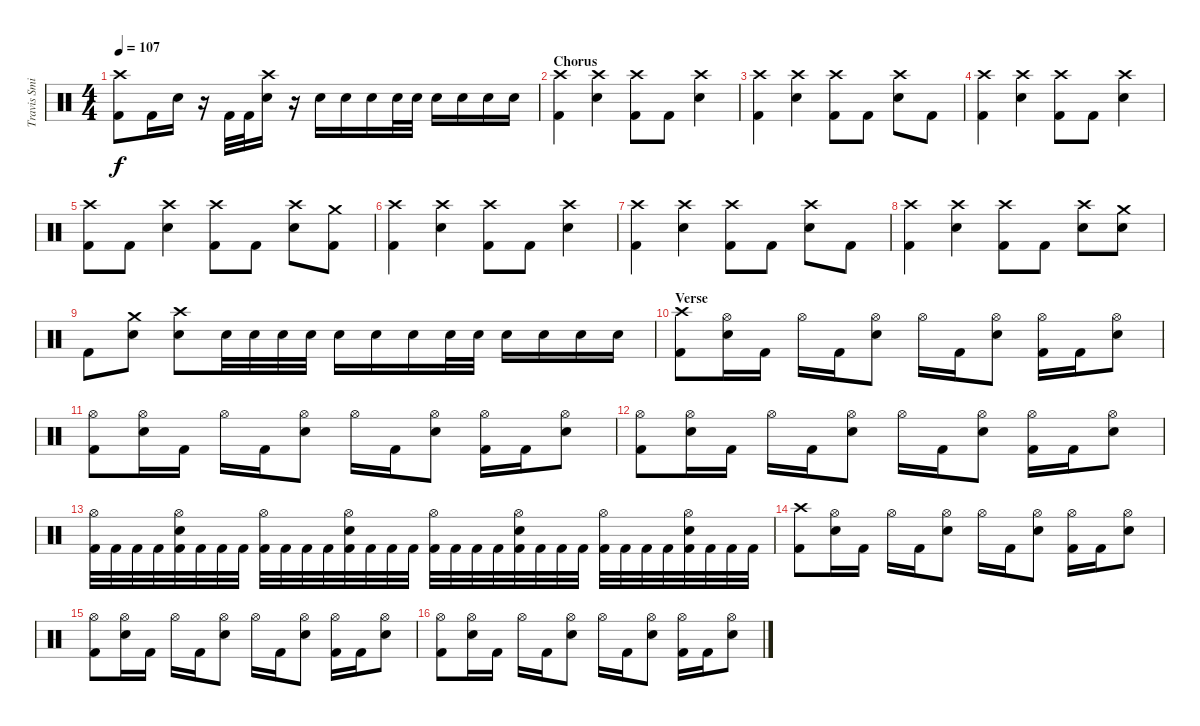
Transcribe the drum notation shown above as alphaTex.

\track ("Travis Smith" "Travis Smi") {instrument percussion}
\staff {score}
\articulation defaults
\ts (4 4)
\tempo 107
\clef neutral
\ks c
("Crash high (hit)" "Kick (hit) 2").8{dy f} "Kick (hit) 2".16 "Electric Snare (hit)".16 r.16 "Kick (hit) 2".32 "Kick (hit) 2".32 ("Crash high (hit)" "Electric Snare (hit)").16 r.16 "Electric Snare (hit)".16 "Electric Snare (hit)".16 "Electric Snare (hit)".16 "Electric Snare (hit)".32 "Electric Snare (hit)".32 "Electric Snare (hit)".16 "Electric Snare (hit)".16 "Electric Snare (hit)".16 "Electric Snare (hit)".16 |
\section ("" "Chorus")
("Crash high (hit)" "Kick (hit) 2").4 ("Crash high (hit)" "Electric Snare (hit)").4 ("Crash high (hit)" "Kick (hit) 2").8 "Kick (hit) 2".8 ("Crash high (hit)" "Electric Snare (hit)").4 |
("Crash high (hit)" "Kick (hit) 2").4 ("Crash high (hit)" "Electric Snare (hit)").4 ("Crash high (hit)" "Kick (hit) 2").8 "Kick (hit) 2".8 ("Crash high (hit)" "Electric Snare (hit)").8 "Kick (hit) 2".8 |
("Crash high (hit)" "Kick (hit) 2").4 ("Crash high (hit)" "Electric Snare (hit)").4 ("Crash high (hit)" "Kick (hit) 2").8 "Kick (hit) 2".8 ("Crash high (hit)" "Electric Snare (hit)").4 |
("Crash high (hit)" "Kick (hit) 2").8 "Kick (hit) 2".8 ("Crash high (hit)" "Electric Snare (hit)").4 ("Crash high (hit)" "Kick (hit) 2").8 "Kick (hit) 2".8 ("Crash high (hit)" "Electric Snare (hit)").8 ("Crash medium (hit)" "Kick (hit) 2").8 |
("Crash high (hit)" "Kick (hit) 2").4 ("Crash high (hit)" "Electric Snare (hit)").4 ("Crash high (hit)" "Kick (hit) 2").8 "Kick (hit) 2".8 ("Crash high (hit)" "Electric Snare (hit)").4 |
("Crash high (hit)" "Kick (hit) 2").4 ("Crash high (hit)" "Electric Snare (hit)").4 ("Crash high (hit)" "Kick (hit) 2").8 "Kick (hit) 2".8 ("Crash high (hit)" "Electric Snare (hit)").8 "Kick (hit) 2".8 |
("Crash high (hit)" "Kick (hit) 2").4 ("Crash high (hit)" "Electric Snare (hit)").4 ("Crash high (hit)" "Kick (hit) 2").8 "Kick (hit) 2".8 ("Crash high (hit)" "Electric Snare (hit)").8 ("Crash medium (hit)" "Electric Snare (hit)").8 |
"Kick (hit) 2".8 ("Crash medium (hit)" "Electric Snare (hit)").8 ("Crash high (hit)" "Electric Snare (hit)").8 "Electric Snare (hit)".32 "Electric Snare (hit)".32 "Electric Snare (hit)".32 "Electric Snare (hit)".32 "Electric Snare (hit)".16 "Electric Snare (hit)".16 "Electric Snare (hit)".16 "Electric Snare (hit)".32 "Electric Snare (hit)".32 "Electric Snare (hit)".16 "Electric Snare (hit)".16 "Electric Snare (hit)".16 "Electric Snare (hit)".16 |
\section ("" "Verse")
("Crash high (hit)" "Kick (hit) 2").8 ("Hi-Hat (open)" "Electric Snare (hit)").16 "Kick (hit) 2".16 "Hi-Hat (open)".16 "Kick (hit) 2".16 ("Hi-Hat (open)" "Electric Snare (hit)").8 "Hi-Hat (open)".16 "Kick (hit) 2".16 ("Hi-Hat (open)" "Electric Snare (hit)").8 ("Hi-Hat (open)" "Kick (hit) 2").16 "Kick (hit) 2".16 ("Hi-Hat (open)" "Electric Snare (hit)").8 |
("Hi-Hat (open)" "Kick (hit) 2").8 ("Hi-Hat (open)" "Electric Snare (hit)").16 "Kick (hit) 2".16 "Hi-Hat (open)".16 "Kick (hit) 2".16 ("Hi-Hat (open)" "Electric Snare (hit)").8 "Hi-Hat (open)".16 "Kick (hit) 2".16 ("Hi-Hat (open)" "Electric Snare (hit)").8 ("Hi-Hat (open)" "Kick (hit) 2").16 "Kick (hit) 2".16 ("Hi-Hat (open)" "Electric Snare (hit)").8 |
("Hi-Hat (open)" "Kick (hit) 2").8 ("Hi-Hat (open)" "Electric Snare (hit)").16 "Kick (hit) 2".16 "Hi-Hat (open)".16 "Kick (hit) 2".16 ("Hi-Hat (open)" "Electric Snare (hit)").8 "Hi-Hat (open)".16 "Kick (hit) 2".16 ("Hi-Hat (open)" "Electric Snare (hit)").8 ("Hi-Hat (open)" "Kick (hit) 2").16 "Kick (hit) 2".16 ("Hi-Hat (open)" "Electric Snare (hit)").8 |
("Hi-Hat (open)" "Kick (hit) 2").32 "Kick (hit) 2".32 "Kick (hit) 2".32 "Kick (hit) 2".32 ("Hi-Hat (open)" "Electric Snare (hit)" "Kick (hit) 2").32 "Kick (hit) 2".32 "Kick (hit) 2".32 "Kick (hit) 2".32 ("Hi-Hat (open)" "Kick (hit) 2").32 "Kick (hit) 2".32 "Kick (hit) 2".32 "Kick (hit) 2".32 ("Hi-Hat (open)" "Electric Snare (hit)" "Kick (hit) 2").32 "Kick (hit) 2".32 "Kick (hit) 2".32 "Kick (hit) 2".32 ("Hi-Hat (open)" "Kick (hit) 2").32 "Kick (hit) 2".32 "Kick (hit) 2".32 "Kick (hit) 2".32 ("Hi-Hat (open)" "Electric Snare (hit)" "Kick (hit) 2").32 "Kick (hit) 2".32 "Kick (hit) 2".32 "Kick (hit) 2".32 ("Hi-Hat (open)" "Kick (hit) 2").32 "Kick (hit) 2".32 "Kick (hit) 2".32 "Kick (hit) 2".32 ("Hi-Hat (open)" "Electric Snare (hit)" "Kick (hit) 2").32 "Kick (hit) 2".32 "Kick (hit) 2".32 "Kick (hit) 2".32 |
("Crash high (hit)" "Kick (hit) 2").8 ("Hi-Hat (open)" "Electric Snare (hit)").16 "Kick (hit) 2".16 "Hi-Hat (open)".16 "Kick (hit) 2".16 ("Hi-Hat (open)" "Electric Snare (hit)").8 "Hi-Hat (open)".16 "Kick (hit) 2".16 ("Hi-Hat (open)" "Electric Snare (hit)").8 ("Hi-Hat (open)" "Kick (hit) 2").16 "Kick (hit) 2".16 ("Hi-Hat (open)" "Electric Snare (hit)").8 |
("Hi-Hat (open)" "Kick (hit) 2").8 ("Hi-Hat (open)" "Electric Snare (hit)").16 "Kick (hit) 2".16 "Hi-Hat (open)".16 "Kick (hit) 2".16 ("Hi-Hat (open)" "Electric Snare (hit)").8 "Hi-Hat (open)".16 "Kick (hit) 2".16 ("Hi-Hat (open)" "Electric Snare (hit)").8 ("Hi-Hat (open)" "Kick (hit) 2").16 "Kick (hit) 2".16 ("Hi-Hat (open)" "Electric Snare (hit)").8 |
("Hi-Hat (open)" "Kick (hit) 2").8 ("Hi-Hat (open)" "Electric Snare (hit)").16 "Kick (hit) 2".16 "Hi-Hat (open)".16 "Kick (hit) 2".16 ("Hi-Hat (open)" "Electric Snare (hit)").8 "Hi-Hat (open)".16 "Kick (hit) 2".16 ("Hi-Hat (open)" "Electric Snare (hit)").8 ("Hi-Hat (open)" "Kick (hit) 2").16 "Kick (hit) 2".16 ("Hi-Hat (open)" "Electric Snare (hit)").8
